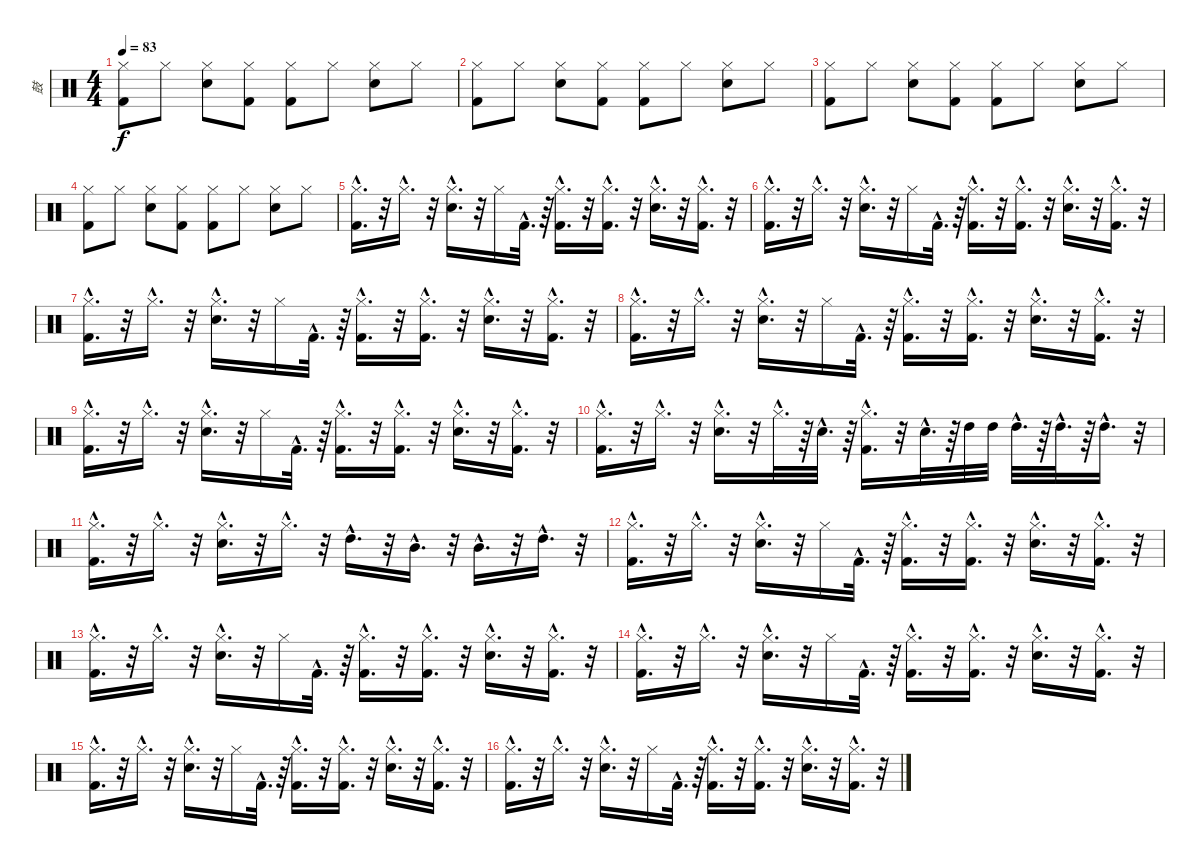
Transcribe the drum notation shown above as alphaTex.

\track ("鼓" "鼓") {instrument percussion}
\staff {score}
\articulation defaults
\ts (4 4)
\tempo 83
\clef neutral
\ks c
("Hi-Hat (closed)" "Kick (hit) 2").8{dy f} "Hi-Hat (closed)".8 ("Snare (hit) 2" "Hi-Hat (closed)").8 ("Hi-Hat (closed)" "Kick (hit) 2").8 ("Hi-Hat (closed)" "Kick (hit) 2").8 "Hi-Hat (closed)".8 ("Snare (hit) 2" "Hi-Hat (closed)").8 "Hi-Hat (closed)".8 |
("Hi-Hat (closed)" "Kick (hit) 2").8 "Hi-Hat (closed)".8 ("Snare (hit) 2" "Hi-Hat (closed)").8 ("Hi-Hat (closed)" "Kick (hit) 2").8 ("Hi-Hat (closed)" "Kick (hit) 2").8 "Hi-Hat (closed)".8 ("Snare (hit) 2" "Hi-Hat (closed)").8 "Hi-Hat (closed)".8 |
("Hi-Hat (closed)" "Kick (hit) 2").8 "Hi-Hat (closed)".8 ("Snare (hit) 2" "Hi-Hat (closed)").8 ("Hi-Hat (closed)" "Kick (hit) 2").8 ("Hi-Hat (closed)" "Kick (hit) 2").8 "Hi-Hat (closed)".8 ("Snare (hit) 2" "Hi-Hat (closed)").8 "Hi-Hat (closed)".8 |
("Hi-Hat (closed)" "Kick (hit) 2").8 "Hi-Hat (closed)".8 ("Snare (hit) 2" "Hi-Hat (closed)").8 ("Hi-Hat (closed)" "Kick (hit) 2").8 ("Hi-Hat (closed)" "Kick (hit) 2").8 "Hi-Hat (closed)".8 ("Snare (hit) 2" "Hi-Hat (closed)").8 "Hi-Hat (closed)".8 |
("Kick (hit) 2"{hac} "Hi-Hat (closed)"{hac}).16{d} r.32 "Hi-Hat (closed)"{hac}.16{d} r.32 ("Hi-Hat (closed)"{hac} "Snare (hit) 2"{hac}).16{d} r.32 "Hi-Hat (closed)".16 "Kick (hit) 2"{hac}.32{d} r.64 ("Hi-Hat (closed)"{hac} "Kick (hit) 2"{hac}).16{d} r.32 ("Hi-Hat (closed)"{hac} "Kick (hit) 2"{hac}).16{d} r.32 ("Snare (hit) 2"{hac} "Hi-Hat (closed)"{hac}).16{d} r.32 ("Kick (hit) 2"{hac} "Hi-Hat (closed)"{hac}).16{d} r.32 |
("Kick (hit) 2"{hac} "Hi-Hat (closed)"{hac}).16{d} r.32 "Hi-Hat (closed)"{hac}.16{d} r.32 ("Hi-Hat (closed)"{hac} "Snare (hit) 2"{hac}).16{d} r.32 "Hi-Hat (closed)".16 "Kick (hit) 2"{hac}.32{d} r.64 ("Hi-Hat (closed)"{hac} "Kick (hit) 2"{hac}).16{d} r.32 ("Hi-Hat (closed)"{hac} "Kick (hit) 2"{hac}).16{d} r.32 ("Hi-Hat (closed)"{hac} "Snare (hit) 2"{hac}).16{d} r.32 ("Kick (hit) 2"{hac} "Hi-Hat (closed)"{hac}).16{d} r.32 |
("Kick (hit) 2"{hac} "Hi-Hat (closed)"{hac}).16{d} r.32 "Hi-Hat (closed)"{hac}.16{d} r.32 ("Snare (hit) 2"{hac} "Hi-Hat (closed)"{hac}).16{d} r.32 "Hi-Hat (closed)".16 "Kick (hit) 2"{hac}.32{d} r.64 ("Hi-Hat (closed)"{hac} "Kick (hit) 2"{hac}).16{d} r.32 ("Hi-Hat (closed)"{hac} "Kick (hit) 2"{hac}).16{d} r.32 ("Snare (hit) 2"{hac} "Hi-Hat (closed)"{hac}).16{d} r.32 ("Hi-Hat (closed)"{hac} "Kick (hit) 2"{hac}).16{d} r.32 |
("Kick (hit) 2"{hac} "Hi-Hat (closed)"{hac}).16{d} r.32 "Hi-Hat (closed)"{hac}.16{d} r.32 ("Snare (hit) 2"{hac} "Hi-Hat (closed)"{hac}).16{d} r.32 "Hi-Hat (closed)".16 "Kick (hit) 2"{hac}.32{d} r.64 ("Hi-Hat (closed)"{hac} "Kick (hit) 2"{hac}).16{d} r.32 ("Hi-Hat (closed)"{hac} "Kick (hit) 2"{hac}).16{d} r.32 ("Snare (hit) 2"{hac} "Hi-Hat (closed)"{hac}).16{d} r.32 ("Kick (hit) 2"{hac} "Hi-Hat (closed)"{hac}).16{d} r.32 |
("Kick (hit) 2"{hac} "Hi-Hat (closed)"{hac}).16{d} r.32 "Hi-Hat (closed)"{hac}.16{d} r.32 ("Hi-Hat (closed)"{hac} "Snare (hit) 2"{hac}).16{d} r.32 "Hi-Hat (closed)".16 "Kick (hit) 2"{hac}.32{d} r.64 ("Kick (hit) 2"{hac} "Hi-Hat (closed)"{hac}).16{d} r.32 ("Kick (hit) 2"{hac} "Hi-Hat (closed)"{hac}).16{d} r.32 ("Hi-Hat (closed)"{hac} "Snare (hit) 2"{hac}).16{d} r.32 ("Hi-Hat (closed)"{hac} "Kick (hit) 2"{hac}).16{d} r.32 |
("Hi-Hat (closed)"{hac} "Kick (hit) 2"{hac}).16{d} r.32 "Hi-Hat (closed)"{hac}.16{d} r.32 ("Hi-Hat (closed)"{hac} "Snare (hit) 2"{hac}).16{d} r.32 "Hi-Hat (closed)"{hac}.32{d} r.64 "Snare (hit) 2"{hac}.32{d} r.64 ("Hi-Hat (closed)"{hac} "Kick (hit) 2"{hac}).16{d} r.32 "Snare (hit) 2"{hac}.32{d} r.64 "High Tom (hit)".32 "High Tom (hit)".32 "High Tom (hit)"{hac}.32{d} r.64 "High Tom (hit)"{hac}.32{d} r.64 "High Tom (hit)"{hac}.16{d} r.32 |
("Kick (hit) 2"{hac} "Hi-Hat (closed)"{hac}).16{d} r.32 "Hi-Hat (closed)"{hac}.16{d} r.32 ("Hi-Hat (closed)"{hac} "Snare (hit) 2"{hac}).16{d} r.32 "Hi-Hat (closed)"{hac}.16{d} r.32 "High Tom (hit)"{hac}.16{d} r.32 "Mid Tom (hit)"{hac}.16{d} r.32 "Mid Tom (hit)"{hac}.16{d} r.32 "High Tom (hit)"{hac}.16{d} r.32 |
("Hi-Hat (closed)"{hac} "Kick (hit) 2"{hac}).16{d} r.32 "Hi-Hat (closed)"{hac}.16{d} r.32 ("Snare (hit) 2"{hac} "Hi-Hat (closed)"{hac}).16{d} r.32 "Hi-Hat (closed)".16 "Kick (hit) 2"{hac}.32{d} r.64 ("Hi-Hat (closed)"{hac} "Kick (hit) 2"{hac}).16{d} r.32 ("Hi-Hat (closed)"{hac} "Kick (hit) 2"{hac}).16{d} r.32 ("Snare (hit) 2"{hac} "Hi-Hat (closed)"{hac}).16{d} r.32 ("Hi-Hat (closed)"{hac} "Kick (hit) 2"{hac}).16{d} r.32 |
("Hi-Hat (closed)"{hac} "Kick (hit) 2"{hac}).16{d} r.32 "Hi-Hat (closed)"{hac}.16{d} r.32 ("Hi-Hat (closed)"{hac} "Snare (hit) 2"{hac}).16{d} r.32 "Hi-Hat (closed)".16 "Kick (hit) 2"{hac}.32{d} r.64 ("Hi-Hat (closed)"{hac} "Kick (hit) 2"{hac}).16{d} r.32 ("Hi-Hat (closed)"{hac} "Kick (hit) 2"{hac}).16{d} r.32 ("Snare (hit) 2"{hac} "Hi-Hat (closed)"{hac}).16{d} r.32 ("Kick (hit) 2"{hac} "Hi-Hat (closed)"{hac}).16{d} r.32 |
("Hi-Hat (closed)"{hac} "Kick (hit) 2"{hac}).16{d} r.32 "Hi-Hat (closed)"{hac}.16{d} r.32 ("Snare (hit) 2"{hac} "Hi-Hat (closed)"{hac}).16{d} r.32 "Hi-Hat (closed)".16 "Kick (hit) 2"{hac}.32{d} r.64 ("Hi-Hat (closed)"{hac} "Kick (hit) 2"{hac}).16{d} r.32 ("Hi-Hat (closed)"{hac} "Kick (hit) 2"{hac}).16{d} r.32 ("Snare (hit) 2"{hac} "Hi-Hat (closed)"{hac}).16{d} r.32 ("Hi-Hat (closed)"{hac} "Kick (hit) 2"{hac}).16{d} r.32 |
("Hi-Hat (closed)"{hac} "Kick (hit) 2"{hac}).16{d} r.32 "Hi-Hat (closed)"{hac}.16{d} r.32 ("Hi-Hat (closed)"{hac} "Snare (hit) 2"{hac}).16{d} r.32 "Hi-Hat (closed)".16 "Kick (hit) 2"{hac}.32{d} r.64 ("Kick (hit) 2"{hac} "Hi-Hat (closed)"{hac}).16{d} r.32 ("Kick (hit) 2"{hac} "Hi-Hat (closed)"{hac}).16{d} r.32 ("Hi-Hat (closed)"{hac} "Snare (hit) 2"{hac}).16{d} r.32 ("Kick (hit) 2"{hac} "Hi-Hat (closed)"{hac}).16{d} r.32 |
("Hi-Hat (closed)"{hac} "Kick (hit) 2"{hac}).16{d} r.32 "Hi-Hat (closed)"{hac}.16{d} r.32 ("Hi-Hat (closed)"{hac} "Snare (hit) 2"{hac}).16{d} r.32 "Hi-Hat (closed)".16 "Kick (hit) 2"{hac}.32{d} r.64 ("Hi-Hat (closed)"{hac} "Kick (hit) 2"{hac}).16{d} r.32 ("Hi-Hat (closed)"{hac} "Kick (hit) 2"{hac}).16{d} r.32 ("Snare (hit) 2"{hac} "Hi-Hat (closed)"{hac}).16{d} r.32 ("Hi-Hat (closed)"{hac} "Kick (hit) 2"{hac}).16{d} r.32
